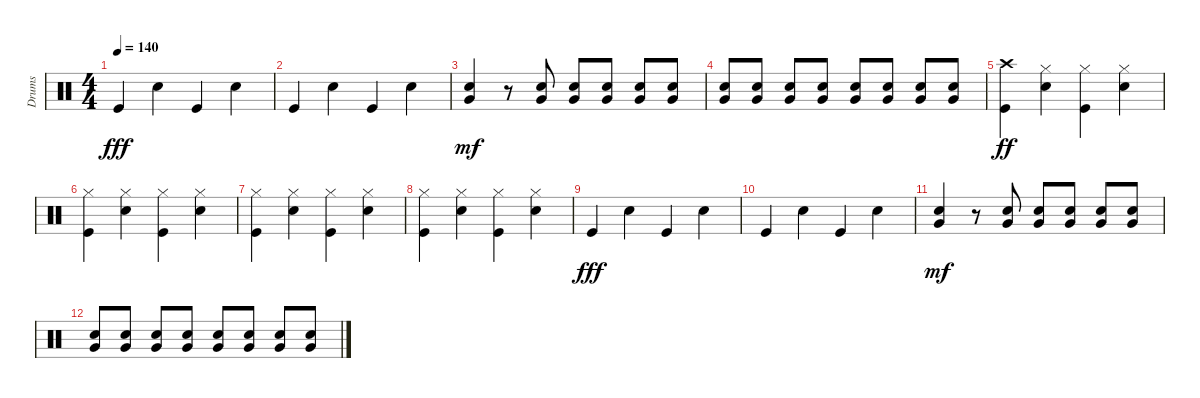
\track ("Drums" "Drums") {instrument percussion}
\staff {score}
\articulation defaults
\ts (4 4)
\tempo 140
\clef neutral
\ks c "Kick (hit)".4{dy fff} "Snare (hit) 2".4 "Kick (hit)".4 "Snare (hit) 2".4
|
"Kick (hit)".4 "Snare (hit) 2".4 "Kick (hit)".4 "Snare (hit) 2".4 |
("Very Low Tom (hit)" "Snare (hit) 2").4{dy mf} r.8 ("Very Low Tom (hit)" "Snare (hit) 2").8 ("Very Low Tom (hit)" "Snare (hit) 2").8 ("Very Low Tom (hit)" "Snare (hit) 2").8 ("Very Low Tom (hit)" "Snare (hit) 2").8 ("Very Low Tom (hit)" "Snare (hit) 2").8 |
("Very Low Tom (hit)" "Snare (hit) 2").8 ("Very Low Tom (hit)" "Snare (hit) 2").8 ("Very Low Tom (hit)" "Snare (hit) 2").8 ("Very Low Tom (hit)" "Snare (hit) 2").8 ("Very Low Tom (hit)" "Snare (hit) 2").8 ("Snare (hit) 2" "Very Low Tom (hit)").8 ("Very Low Tom (hit)" "Snare (hit) 2").8 ("Very Low Tom (hit)" "Snare (hit) 2").8 |
("Crash high (hit)" "Kick (hit)").4{dy ff} ("Hi-Hat (closed)" "Snare (hit) 2").4 ("Kick (hit)" "Hi-Hat (closed)").4 ("Hi-Hat (closed)" "Snare (hit) 2").4 |
("Kick (hit)" "Hi-Hat (closed)").4 ("Hi-Hat (closed)" "Snare (hit) 2").4 ("Kick (hit)" "Hi-Hat (closed)").4 ("Hi-Hat (closed)" "Snare (hit) 2").4 |
("Kick (hit)" "Hi-Hat (closed)").4 ("Hi-Hat (closed)" "Snare (hit) 2").4 ("Kick (hit)" "Hi-Hat (closed)").4 ("Hi-Hat (closed)" "Snare (hit) 2").4 |
("Kick (hit)" "Hi-Hat (closed)").4 ("Snare (hit) 2" "Hi-Hat (closed)").4 ("Kick (hit)" "Hi-Hat (closed)").4 ("Hi-Hat (closed)" "Snare (hit) 2").4 |
"Kick (hit)".4{dy fff} "Snare (hit) 2".4 "Kick (hit)".4 "Snare (hit) 2".4 |
"Kick (hit)".4 "Snare (hit) 2".4 "Kick (hit)".4 "Snare (hit) 2".4 |
("Very Low Tom (hit)" "Snare (hit) 2").4{dy mf} r.8 ("Very Low Tom (hit)" "Snare (hit) 2").8 ("Very Low Tom (hit)" "Snare (hit) 2").8 ("Very Low Tom (hit)" "Snare (hit) 2").8 ("Very Low Tom (hit)" "Snare (hit) 2").8 ("Very Low Tom (hit)" "Snare (hit) 2").8 |
("Very Low Tom (hit)" "Snare (hit) 2").8 ("Very Low Tom (hit)" "Snare (hit) 2").8 ("Very Low Tom (hit)" "Snare (hit) 2").8 ("Very Low Tom (hit)" "Snare (hit) 2").8 ("Very Low Tom (hit)" "Snare (hit) 2").8 ("Snare (hit) 2" "Very Low Tom (hit)").8 ("Very Low Tom (hit)" "Snare (hit) 2").8 ("Very Low Tom (hit)" "Snare (hit) 2").8
